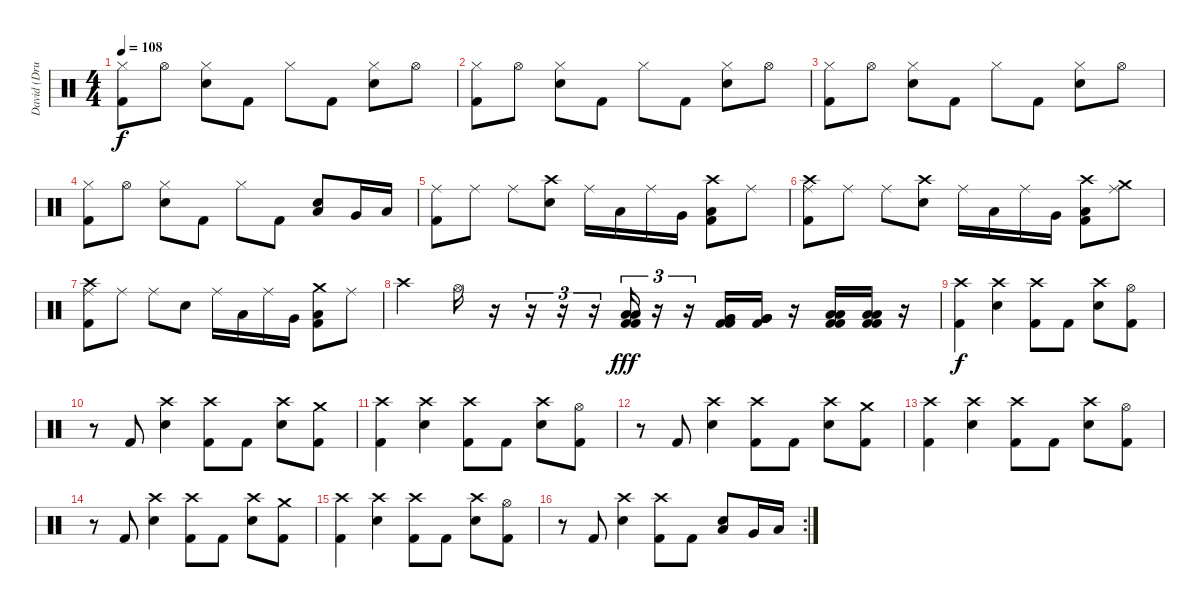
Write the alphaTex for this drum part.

\track ("David (Drumkit)" "David (Dru") {instrument percussion}
\staff {score}
\articulation defaults
\ts (4 4)
\tempo 108
\clef neutral
\ks c
("Hi-Hat (closed)" "Kick (hit) 2").8{dy f} "Hi-Hat (open)".8 ("Hi-Hat (closed)" "Electric Snare (hit)").8 "Kick (hit) 2".8 "Hi-Hat (closed)".8 "Kick (hit) 2".8 ("Hi-Hat (closed)" "Electric Snare (hit)").8 "Hi-Hat (open)".8 |
("Hi-Hat (closed)" "Kick (hit) 2").8 "Hi-Hat (open)".8 ("Hi-Hat (closed)" "Electric Snare (hit)").8 "Kick (hit) 2".8 "Hi-Hat (closed)".8 "Kick (hit) 2".8 ("Hi-Hat (closed)" "Electric Snare (hit)").8 "Hi-Hat (open)".8 |
("Hi-Hat (closed)" "Kick (hit) 2").8 "Hi-Hat (open)".8 ("Hi-Hat (closed)" "Electric Snare (hit)").8 "Kick (hit) 2".8 "Hi-Hat (closed)".8 "Kick (hit) 2".8 ("Hi-Hat (closed)" "Electric Snare (hit)").8 "Hi-Hat (open)".8 |
("Hi-Hat (closed)" "Kick (hit) 2").8 "Hi-Hat (open)".8 ("Hi-Hat (closed)" "Electric Snare (hit)").8 "Kick (hit) 2".8 "Hi-Hat (closed)".8 "Kick (hit) 2".8 ("Low Tom (hit)" "Electric Snare (hit)").8 "Very Low Tom (hit)".16 "Low Floor Tom (hit)".16 |
("Ride (middle)" "Kick (hit) 2").8 "Ride (middle)".8 "Ride (middle)".8 ("Crash high (hit)" "Electric Snare (hit)").8 "Ride (middle)".16 "Low Tom (hit)".16 "Ride (middle)".16 "Very Low Tom (hit)".16 ("Crash high (hit)" "Low Floor Tom (hit)" "Kick (hit) 2").8 "Ride (middle)".8 |
("Crash high (hit)" "Ride (middle)" "Kick (hit) 2").8 "Ride (middle)".8 "Ride (middle)".8 ("Crash high (hit)" "Electric Snare (hit)").8 "Ride (middle)".16 "Low Tom (hit)".16 "Ride (middle)".16 "Very Low Tom (hit)".16 ("Crash high (hit)" "Low Floor Tom (hit)" "Kick (hit) 2").8 ("Crash medium (hit)" "Ride (middle)").8 |
("Crash high (hit)" "Ride (middle)" "Kick (hit) 2").8 "Ride (middle)".8 "Ride (middle)".8 "Electric Snare (hit)".8 "Ride (middle)".16 "Low Tom (hit)".16 "Ride (middle)".16 "Very Low Tom (hit)".16 ("Crash medium (hit)" "Low Floor Tom (hit)" "Kick (hit) 2").8 "Ride (middle)".8 |
"Crash high (hit)".4 "Hi-Hat (open)".16 r.16 r.16{tu (3 2)} r.16{tu (3 2)} r.16{tu (3 2)} ("Low Tom (hit)" "Low Tom (hit)" "Kick (hit) 2" "Kick (hit) 2").16{tu (3 2) dy fff} r.16{tu (3 2)} r.16{tu (3 2)} ("Very Low Tom (hit)" "Very Low Tom (hit)" "Kick (hit) 2" "Kick (hit) 2").16 ("Very Low Tom (hit)" "Very Low Tom (hit)" "Kick (hit) 2" "Very Low Tom (hit)").16 r.16 ("Low Floor Tom (hit)" "Low Floor Tom (hit)" "Kick (hit) 2" "Kick (hit) 2").16 ("Low Floor Tom (hit)" "Low Floor Tom (hit)" "Kick (hit) 2" "Kick (hit) 2").16 r.16 |
("Crash high (hit)" "Kick (hit) 2").4{dy f} ("Crash high (hit)" "Electric Snare (hit)").4 ("Crash high (hit)" "Kick (hit) 2").8 "Kick (hit) 2".8 ("Crash high (hit)" "Electric Snare (hit)").8 ("Hi-Hat (open)" "Kick (hit) 2").8 |
r.8 "Kick (hit) 2".8 ("Crash high (hit)" "Electric Snare (hit)").4 ("Crash high (hit)" "Kick (hit) 2").8 "Kick (hit) 2".8 ("Crash high (hit)" "Electric Snare (hit)").8 ("Crash medium (hit)" "Kick (hit) 2").8 |
("Crash high (hit)" "Kick (hit) 2").4 ("Crash high (hit)" "Electric Snare (hit)").4 ("Crash high (hit)" "Kick (hit) 2").8 "Kick (hit) 2".8 ("Crash high (hit)" "Electric Snare (hit)").8 ("Hi-Hat (open)" "Kick (hit) 2").8 |
r.8 "Kick (hit) 2".8 ("Crash high (hit)" "Electric Snare (hit)").4 ("Crash high (hit)" "Kick (hit) 2").8 "Kick (hit) 2".8 ("Crash high (hit)" "Electric Snare (hit)").8 ("Crash medium (hit)" "Kick (hit) 2").8 |
("Crash high (hit)" "Kick (hit) 2").4 ("Crash high (hit)" "Electric Snare (hit)").4 ("Crash high (hit)" "Kick (hit) 2").8 "Kick (hit) 2".8 ("Crash high (hit)" "Electric Snare (hit)").8 ("Hi-Hat (open)" "Kick (hit) 2").8 |
r.8 "Kick (hit) 2".8 ("Crash high (hit)" "Electric Snare (hit)").4 ("Crash high (hit)" "Kick (hit) 2").8 "Kick (hit) 2".8 ("Crash high (hit)" "Electric Snare (hit)").8 ("Crash medium (hit)" "Kick (hit) 2").8 |
("Crash high (hit)" "Kick (hit) 2").4 ("Crash high (hit)" "Electric Snare (hit)").4 ("Crash high (hit)" "Kick (hit) 2").8 "Kick (hit) 2".8 ("Crash high (hit)" "Electric Snare (hit)").8 ("Hi-Hat (open)" "Kick (hit) 2").8 |
\rc 2
r.8 "Kick (hit) 2".8 ("Crash high (hit)" "Electric Snare (hit)").4 ("Crash high (hit)" "Kick (hit) 2").8 "Kick (hit) 2".8 ("Low Tom (hit)" "Electric Snare (hit)").8 "Very Low Tom (hit)".16 "Low Floor Tom (hit)".16
